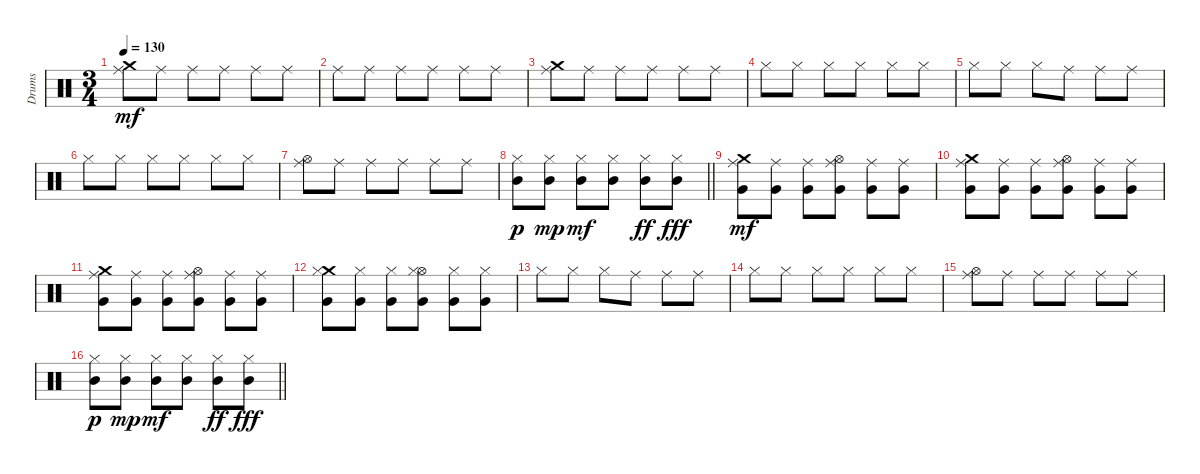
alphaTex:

\track ("Drums" "Drums") {instrument percussion}
\staff {score}
\articulation defaults
\ts (3 4)
\tempo 130
\clef neutral
\ks c
("Crash medium (hit)" "Ride (middle)").8{dy mf} "Ride (middle)".8 "Ride (middle)".8 "Ride (middle)".8 "Ride (middle)".8 "Ride (middle)".8 |
"Ride (middle)".8 "Ride (middle)".8 "Ride (middle)".8 "Ride (middle)".8 "Ride (middle)".8 "Ride (middle)".8 |
("Crash medium (hit)" "Ride (middle)").8 "Ride (middle)".8 "Ride (middle)".8 "Ride (middle)".8 "Ride (middle)".8 "Ride (middle)".8 |
"Hi-Hat (closed)".8 "Hi-Hat (closed)".8 "Hi-Hat (closed)".8 "Hi-Hat (closed)".8 "Hi-Hat (closed)".8 "Hi-Hat (closed)".8 |
"Hi-Hat (closed)".8 "Hi-Hat (closed)".8 "Hi-Hat (closed)".8 "Ride (middle)".8 "Ride (middle)".8 "Ride (middle)".8 |
"Hi-Hat (closed)".8 "Hi-Hat (closed)".8 "Hi-Hat (closed)".8 "Hi-Hat (closed)".8 "Hi-Hat (closed)".8 "Hi-Hat (closed)".8 |
("Hi-Hat (open)" "Ride (middle)").8 "Ride (middle)".8 "Ride (middle)".8 "Ride (middle)".8 "Ride (middle)".8 "Ride (middle)".8 |
\barLineRight lightlight
("Hi-Hat (closed)" "Mid Tom (hit)").8{dy p} ("Hi-Hat (closed)" "Mid Tom (hit)").8{dy mp} ("Hi-Hat (closed)" "Mid Tom (hit)").8{dy mf} ("Hi-Hat (closed)" "Mid Tom (hit)").8 ("Hi-Hat (closed)" "Mid Tom (hit)").8{dy ff} ("Hi-Hat (closed)" "Mid Tom (hit)").8{dy fff} |
("Crash medium (hit)" "Ride (middle)" "Very Low Tom (hit)").8{dy mf} ("Ride (middle)" "Very Low Tom (hit)").8 ("Ride (middle)" "Very Low Tom (hit)").8 ("Hi-Hat (open)" "Ride (middle)" "Very Low Tom (hit)").8 ("Ride (middle)" "Very Low Tom (hit)").8 ("Ride (middle)" "Very Low Tom (hit)").8 |
("Crash medium (hit)" "Ride (middle)" "Very Low Tom (hit)").8 ("Ride (middle)" "Very Low Tom (hit)").8 ("Ride (middle)" "Very Low Tom (hit)").8 ("Hi-Hat (open)" "Ride (middle)" "Very Low Tom (hit)").8 ("Ride (middle)" "Very Low Tom (hit)").8 ("Ride (middle)" "Very Low Tom (hit)").8 |
("Crash medium (hit)" "Ride (middle)" "Very Low Tom (hit)").8 ("Ride (middle)" "Very Low Tom (hit)").8 ("Ride (middle)" "Very Low Tom (hit)").8 ("Hi-Hat (open)" "Ride (middle)" "Very Low Tom (hit)").8 ("Ride (middle)" "Very Low Tom (hit)").8 ("Ride (middle)" "Very Low Tom (hit)").8 |
("Crash medium (hit)" "Hi-Hat (closed)" "Very Low Tom (hit)").8 ("Hi-Hat (closed)" "Very Low Tom (hit)").8 ("Hi-Hat (closed)" "Very Low Tom (hit)").8 ("Hi-Hat (open)" "Hi-Hat (closed)" "Very Low Tom (hit)").8 ("Hi-Hat (closed)" "Very Low Tom (hit)").8 ("Hi-Hat (closed)" "Very Low Tom (hit)").8 |
"Hi-Hat (closed)".8 "Hi-Hat (closed)".8 "Hi-Hat (closed)".8 "Ride (middle)".8 "Ride (middle)".8 "Ride (middle)".8 |
"Hi-Hat (closed)".8 "Hi-Hat (closed)".8 "Hi-Hat (closed)".8 "Hi-Hat (closed)".8 "Hi-Hat (closed)".8 "Hi-Hat (closed)".8 |
("Hi-Hat (open)" "Ride (middle)").8 "Ride (middle)".8 "Ride (middle)".8 "Ride (middle)".8 "Ride (middle)".8 "Ride (middle)".8 |
\barLineRight lightlight
("Hi-Hat (closed)" "Mid Tom (hit)").8{dy p} ("Hi-Hat (closed)" "Mid Tom (hit)").8{dy mp} ("Hi-Hat (closed)" "Mid Tom (hit)").8{dy mf} ("Hi-Hat (closed)" "Mid Tom (hit)").8 ("Hi-Hat (closed)" "Mid Tom (hit)").8{dy ff} ("Hi-Hat (closed)" "Mid Tom (hit)").8{dy fff}
